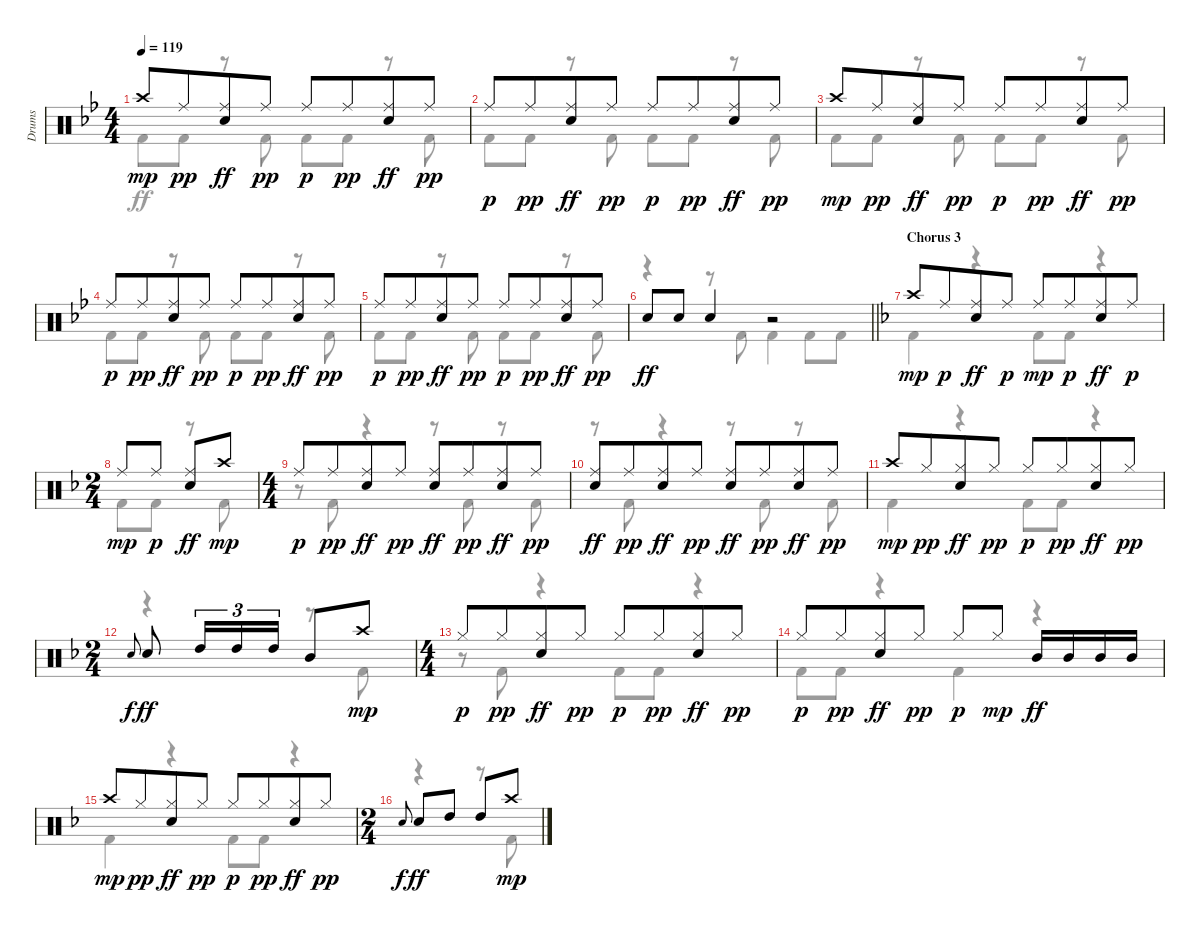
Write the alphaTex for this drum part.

\track ("Drums" "Drums") {instrument percussion}
\staff {score}
\articulation defaults
\voice
\ts (4 4)
\tempo 119
\clef neutral
\ks bb "Crash high (hit)".8{dy mp} "Ride (middle)".8{dy pp beam merge}
("Ride (middle)" "Electric Snare (hit)").8{dy ff} "Ride (middle)".8{dy pp} "Ride (middle)".8{dy p} "Ride (middle)".8{dy pp beam merge} ("Ride (middle)" "Electric Snare (hit)").8{dy ff} "Ride (middle)".8{dy pp} |
"Ride (middle)".8{dy p} "Ride (middle)".8{dy pp beam merge} ("Ride (middle)" "Electric Snare (hit)").8{dy ff} "Ride (middle)".8{dy pp} "Ride (middle)".8{dy p} "Ride (middle)".8{dy pp beam merge} ("Ride (middle)" "Electric Snare (hit)").8{dy ff} "Ride (middle)".8{dy pp} |
"Crash high (hit)".8{dy mp} "Ride (middle)".8{dy pp beam merge} ("Ride (middle)" "Electric Snare (hit)").8{dy ff} "Ride (middle)".8{dy pp} "Ride (middle)".8{dy p} "Ride (middle)".8{dy pp beam merge} ("Ride (middle)" "Electric Snare (hit)").8{dy ff} "Ride (middle)".8{dy pp} |
"Ride (middle)".8{dy p} "Ride (middle)".8{dy pp beam merge} ("Ride (middle)" "Electric Snare (hit)").8{dy ff} "Ride (middle)".8{dy pp} "Ride (middle)".8{dy p} "Ride (middle)".8{dy pp beam merge} ("Ride (middle)" "Electric Snare (hit)").8{dy ff} "Ride (middle)".8{dy pp} |
"Ride (middle)".8{dy p} "Ride (middle)".8{dy pp beam merge} ("Ride (middle)" "Electric Snare (hit)").8{dy ff} "Ride (middle)".8{dy pp} "Ride (middle)".8{dy p} "Ride (middle)".8{dy pp beam merge} ("Ride (middle)" "Electric Snare (hit)").8{dy ff} "Ride (middle)".8{dy pp} |
\barLineRight lightlight "Electric Snare (hit)".8{dy ff} "Electric Snare (hit)".8 "Electric Snare (hit)".4
r.2 |
\section ("" "Chorus 3")
\ks f "Crash high (hit)".8{dy mp} "Ride (middle)".8{dy p beam merge}
("Ride (middle)" "Electric Snare (hit)").8{dy ff} "Ride (middle)".8{dy p} "Ride (middle)".8{dy mp} "Ride (middle)".8{dy p beam merge} ("Ride (middle)" "Electric Snare (hit)").8{dy ff} "Ride (middle)".8{dy p} |
\ts (2 4)
"Ride (middle)".8{dy mp} "Ride (middle)".8{dy p beam split} ("Ride (middle)" "Electric Snare (hit)").8{dy ff} "Crash high (hit)".8{dy mp} |
\ts (4 4)
"Ride (middle)".8{dy p} "Ride (middle)".8{dy pp beam merge} ("Ride (middle)" "Electric Snare (hit)").8{dy ff} "Ride (middle)".8{dy pp} ("Ride (middle)" "Electric Snare (hit)").8{dy ff} "Ride (middle)".8{dy pp beam merge} ("Ride (middle)" "Electric Snare (hit)").8{dy ff} "Ride (middle)".8{dy pp} |
("Ride (middle)" "Electric Snare (hit)").8{dy ff} "Ride (middle)".8{dy pp beam merge} ("Ride (middle)" "Electric Snare (hit)").8{dy ff} "Ride (middle)".8{dy pp} ("Ride (middle)" "Electric Snare (hit)").8{dy ff} "Ride (middle)".8{dy pp beam merge} ("Ride (middle)" "Electric Snare (hit)").8{dy ff} "Ride (middle)".8{dy pp} |
"Crash high (hit)".8{dy mp} "Hi-Hat (closed)".8{dy pp beam merge} ("Hi-Hat (closed)" "Electric Snare (hit)").8{dy ff} "Hi-Hat (closed)".8{dy pp} "Hi-Hat (closed)".8{dy p} "Hi-Hat (closed)".8{dy pp beam merge} ("Hi-Hat (closed)" "Electric Snare (hit)").8{dy ff} "Hi-Hat (closed)".8{dy pp} |
\ts (2 4)
"Electric Snare (hit)".8{gr onbeat dy f} "Electric Snare (hit)".8{dy ff} "High Tom (hit)".16{tu (3 2)} "High Tom (hit)".16{tu (3 2)} "High Tom (hit)".16{tu (3 2)} "Mid Tom (hit)".8 "Crash high (hit)".8{dy mp} |
\ts (4 4)
"Hi-Hat (closed)".8{dy p} "Hi-Hat (closed)".8{dy pp beam merge} ("Hi-Hat (closed)" "Electric Snare (hit)").8{dy ff} "Hi-Hat (closed)".8{dy pp} "Hi-Hat (closed)".8{dy p} "Hi-Hat (closed)".8{dy pp beam merge} ("Hi-Hat (closed)" "Electric Snare (hit)").8{dy ff} "Hi-Hat (closed)".8{dy pp} |
"Hi-Hat (closed)".8{dy p} "Hi-Hat (closed)".8{dy pp beam merge} ("Hi-Hat (closed)" "Electric Snare (hit)").8{dy ff} "Hi-Hat (closed)".8{dy pp} "Hi-Hat (closed)".8{dy p} "Hi-Hat (closed)".8{dy mp} "Mid Tom (hit)".16{dy ff} "Mid Tom (hit)".16 "Mid Tom (hit)".16 "Mid Tom (hit)".16 |
"Crash high (hit)".8{dy mp} "Hi-Hat (closed)".8{dy pp beam merge} ("Hi-Hat (closed)" "Electric Snare (hit)").8{dy ff} "Hi-Hat (closed)".8{dy pp} "Hi-Hat (closed)".8{dy p} "Hi-Hat (closed)".8{dy pp beam merge} ("Hi-Hat (closed)" "Electric Snare (hit)").8{dy ff} "Hi-Hat (closed)".8{dy pp} |
\ts (2 4)
"Electric Snare (hit)".8{gr onbeat dy f} "Electric Snare (hit)".8{dy ff} "High Tom (hit)".8{beam split} "High Tom (hit)".8 "Crash high (hit)".8{dy mp}
\voice
\clef neutral
\ottava regular
\simile none
\ks bb "Kick (hit) 2".8{dy ff} "Kick (hit) 2".8
r.8 "Kick (hit) 2".8 "Kick (hit) 2".8 "Kick (hit) 2".8 r.8 "Kick (hit) 2".8 |
"Kick (hit) 2".8 "Kick (hit) 2".8 r.8 "Kick (hit) 2".8 "Kick (hit) 2".8 "Kick (hit) 2".8 r.8 "Kick (hit) 2".8 |
"Kick (hit) 2".8 "Kick (hit) 2".8 r.8 "Kick (hit) 2".8 "Kick (hit) 2".8 "Kick (hit) 2".8 r.8 "Kick (hit) 2".8 |
"Kick (hit) 2".8 "Kick (hit) 2".8 r.8 "Kick (hit) 2".8 "Kick (hit) 2".8 "Kick (hit) 2".8 r.8 "Kick (hit) 2".8 |
"Kick (hit) 2".8 "Kick (hit) 2".8 r.8 "Kick (hit) 2".8 "Kick (hit) 2".8 "Kick (hit) 2".8 r.8 "Kick (hit) 2".8 |
\barLineRight lightlight
r.4 r.8 "Kick (hit) 2".8 "Kick (hit) 2".4 "Kick (hit) 2".8 "Kick (hit) 2".8 |
\ks f "Kick (hit) 2".4
r.4 "Kick (hit) 2".8 "Kick (hit) 2".8 r.4 |
"Kick (hit) 2".8 "Kick (hit) 2".8 r.8 "Kick (hit) 2".8 |
r.8 "Kick (hit) 2".8 r.4 r.8 "Kick (hit) 2".8 r.8 "Kick (hit) 2".8 |
r.8 "Kick (hit) 2".8 r.4 r.8 "Kick (hit) 2".8 r.8 "Kick (hit) 2".8 |
"Kick (hit) 2".4 r.4 "Kick (hit) 2".8 "Kick (hit) 2".8 r.4 |
r.4 r.8 "Kick (hit) 2".8 |
r.8 "Kick (hit) 2".8 r.4 "Kick (hit) 2".8 "Kick (hit) 2".8 r.4 |
"Kick (hit) 2".8 "Kick (hit) 2".8 r.4 "Kick (hit) 2".4 r.4 |
"Kick (hit) 2".4 r.4 "Kick (hit) 2".8 "Kick (hit) 2".8 r.4 |
r.4 r.8 "Kick (hit) 2".8
